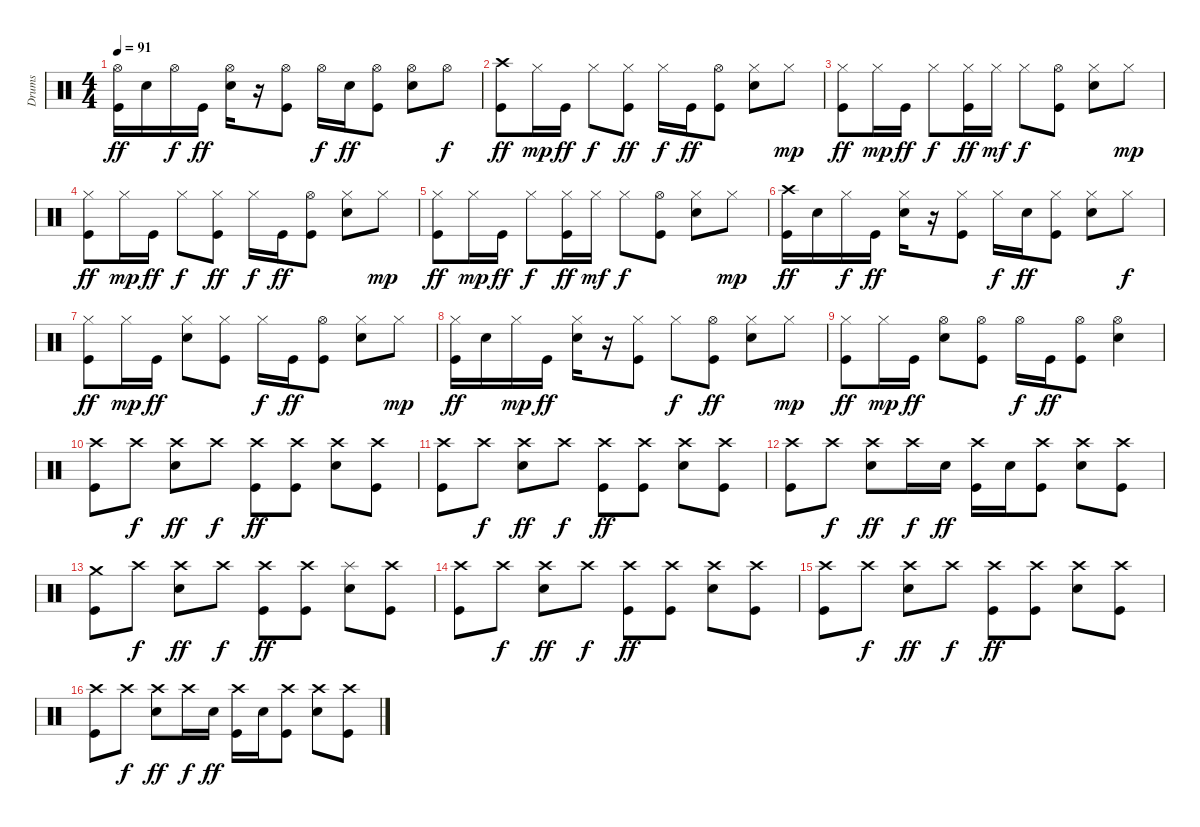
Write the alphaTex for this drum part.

\track ("Drums" "Drums") {instrument percussion}
\staff {score}
\articulation defaults
\ts (4 4)
\tempo 91
\clef neutral
\ks c
("Hi-Hat (open)" "Kick (hit)").16{dy ff} "Electric Snare (hit)".16 "Hi-Hat (open)".16{dy f} "Kick (hit)".16{dy ff} ("Hi-Hat (open)" "Electric Snare (hit)").16 r.16 ("Hi-Hat (open)" "Kick (hit)").8 "Hi-Hat (open)".16{dy f} "Electric Snare (hit)".16{dy ff} ("Hi-Hat (open)" "Kick (hit)").8 ("Hi-Hat (open)" "Electric Snare (hit)").8 "Hi-Hat (open)".8{dy f} |
("Crash high (hit)" "Kick (hit)").8{dy ff} "Hi-Hat (closed)".16{dy mp} "Kick (hit)".16{dy ff} "Hi-Hat (closed)".8{dy f} ("Hi-Hat (closed)" "Kick (hit)").8{dy ff} "Hi-Hat (closed)".16{dy f} "Kick (hit)".16{dy ff} ("Hi-Hat (open)" "Kick (hit)").8 ("Hi-Hat (closed)" "Electric Snare (hit)").8 "Hi-Hat (closed)".8{dy mp} |
("Hi-Hat (closed)" "Kick (hit)").8{dy ff} "Hi-Hat (closed)".16{dy mp} "Kick (hit)".16{dy ff} "Hi-Hat (closed)".8{dy f} ("Hi-Hat (closed)" "Kick (hit)").16{dy ff} "Hi-Hat (closed)".16{dy mf} "Hi-Hat (closed)".8{dy f} ("Hi-Hat (open)" "Kick (hit)").8 ("Hi-Hat (closed)" "Electric Snare (hit)").8 "Hi-Hat (closed)".8{dy mp} |
("Hi-Hat (closed)" "Kick (hit)").8{dy ff} "Hi-Hat (closed)".16{dy mp} "Kick (hit)".16{dy ff} "Hi-Hat (closed)".8{dy f} ("Hi-Hat (closed)" "Kick (hit)").8{dy ff} "Hi-Hat (closed)".16{dy f} "Kick (hit)".16{dy ff} ("Hi-Hat (open)" "Kick (hit)").8 ("Hi-Hat (closed)" "Electric Snare (hit)").8 "Hi-Hat (closed)".8{dy mp} |
("Hi-Hat (closed)" "Kick (hit)").8{dy ff} "Hi-Hat (closed)".16{dy mp} "Kick (hit)".16{dy ff} "Hi-Hat (closed)".8{dy f} ("Hi-Hat (closed)" "Kick (hit)").16{dy ff} "Hi-Hat (closed)".16{dy mf} "Hi-Hat (closed)".8{dy f} ("Hi-Hat (open)" "Kick (hit)").8 ("Hi-Hat (closed)" "Electric Snare (hit)").8 "Hi-Hat (closed)".8{dy mp} |
("Crash high (hit)" "Kick (hit)").16{dy ff} "Electric Snare (hit)".16 "Hi-Hat (closed)".16{dy f} "Kick (hit)".16{dy ff} ("Hi-Hat (closed)" "Electric Snare (hit)").16 r.16 ("Hi-Hat (closed)" "Kick (hit)").8 "Hi-Hat (closed)".16{dy f} "Electric Snare (hit)".16{dy ff} ("Hi-Hat (closed)" "Kick (hit)").8 ("Hi-Hat (closed)" "Electric Snare (hit)").8 "Hi-Hat (closed)".8{dy f} |
("Hi-Hat (closed)" "Kick (hit)").8{dy ff} "Hi-Hat (closed)".16{dy mp} "Kick (hit)".16{dy ff} ("Hi-Hat (closed)" "Electric Snare (hit)").8 ("Hi-Hat (closed)" "Kick (hit)").8 "Hi-Hat (closed)".16{dy f} "Kick (hit)".16{dy ff} ("Hi-Hat (open)" "Kick (hit)").8 ("Hi-Hat (closed)" "Electric Snare (hit)").8 "Hi-Hat (closed)".8{dy mp} |
("Hi-Hat (closed)" "Kick (hit)").16{dy ff} "Electric Snare (hit)".16 "Hi-Hat (closed)".16{dy mp} "Kick (hit)".16{dy ff} ("Hi-Hat (closed)" "Electric Snare (hit)").16 r.16 ("Hi-Hat (closed)" "Kick (hit)").8 "Hi-Hat (closed)".8{dy f} ("Hi-Hat (open)" "Kick (hit)").8{dy ff} ("Hi-Hat (closed)" "Electric Snare (hit)").8 "Hi-Hat (closed)".8{dy mp} |
("Hi-Hat (closed)" "Kick (hit)").8{dy ff} "Hi-Hat (closed)".16{dy mp} "Kick (hit)".16{dy ff} ("Hi-Hat (open)" "Electric Snare (hit)").8 ("Hi-Hat (open)" "Kick (hit)").8 "Hi-Hat (open)".16{dy f} "Kick (hit)".16{dy ff} ("Hi-Hat (open)" "Kick (hit)").8 ("Hi-Hat (open)" "Electric Snare (hit)").4 |
("Crash high (hit)" "Kick (hit)").8 "Crash high (hit)".8{dy f} ("Crash high (hit)" "Electric Snare (hit)").8{dy ff} "Crash high (hit)".8{dy f} ("Crash high (hit)" "Kick (hit)").8{dy ff} ("Crash high (hit)" "Kick (hit)").8 ("Crash high (hit)" "Electric Snare (hit)").8 ("Crash high (hit)" "Kick (hit)").8 |
("Crash high (hit)" "Kick (hit)").8 "Crash high (hit)".8{dy f} ("Crash high (hit)" "Electric Snare (hit)").8{dy ff} "Crash high (hit)".8{dy f} ("Crash high (hit)" "Kick (hit)").8{dy ff} ("Crash high (hit)" "Kick (hit)").8 ("Crash high (hit)" "Electric Snare (hit)").8 ("Crash high (hit)" "Kick (hit)").8 |
("Crash high (hit)" "Kick (hit)").8 "Crash high (hit)".8{dy f} ("Crash high (hit)" "Electric Snare (hit)").8{dy ff} "Crash high (hit)".16{dy f} "Electric Snare (hit)".16{dy ff} ("Crash high (hit)" "Kick (hit)").16 "Electric Snare (hit)".16 ("Crash high (hit)" "Kick (hit)").8 ("Crash high (hit)" "Electric Snare (hit)").8 ("Crash high (hit)" "Kick (hit)").8 |
("Crash medium (hit)" "Kick (hit)").8 "Crash high (hit)".8{dy f} ("Crash high (hit)" "Electric Snare (hit)").8{dy ff} "Crash high (hit)".8{dy f} ("Crash high (hit)" "Kick (hit)").8{dy ff} ("Crash high (hit)" "Kick (hit)").8 ("Splash (hit)" "Electric Snare (hit)").8 ("Crash high (hit)" "Kick (hit)").8 |
("Crash high (hit)" "Kick (hit)").8 "Crash high (hit)".8{dy f} ("Crash high (hit)" "Electric Snare (hit)").8{dy ff} "Crash high (hit)".8{dy f} ("Crash high (hit)" "Kick (hit)").8{dy ff} ("Crash high (hit)" "Kick (hit)").8 ("Crash high (hit)" "Electric Snare (hit)").8 ("Crash high (hit)" "Kick (hit)").8 |
("Crash high (hit)" "Kick (hit)").8 "Crash high (hit)".8{dy f} ("Crash high (hit)" "Electric Snare (hit)").8{dy ff} "Crash high (hit)".8{dy f} ("Crash high (hit)" "Kick (hit)").8{dy ff} ("Crash high (hit)" "Kick (hit)").8 ("Crash high (hit)" "Electric Snare (hit)").8 ("Crash high (hit)" "Kick (hit)").8 |
("Crash high (hit)" "Kick (hit)").8 "Crash high (hit)".8{dy f} ("Crash high (hit)" "Electric Snare (hit)").8{dy ff} "Crash high (hit)".16{dy f} "Electric Snare (hit)".16{dy ff} ("Crash high (hit)" "Kick (hit)").16 "Electric Snare (hit)".16 ("Crash high (hit)" "Kick (hit)").8 ("Crash high (hit)" "Electric Snare (hit)").8 ("Crash high (hit)" "Kick (hit)").8
